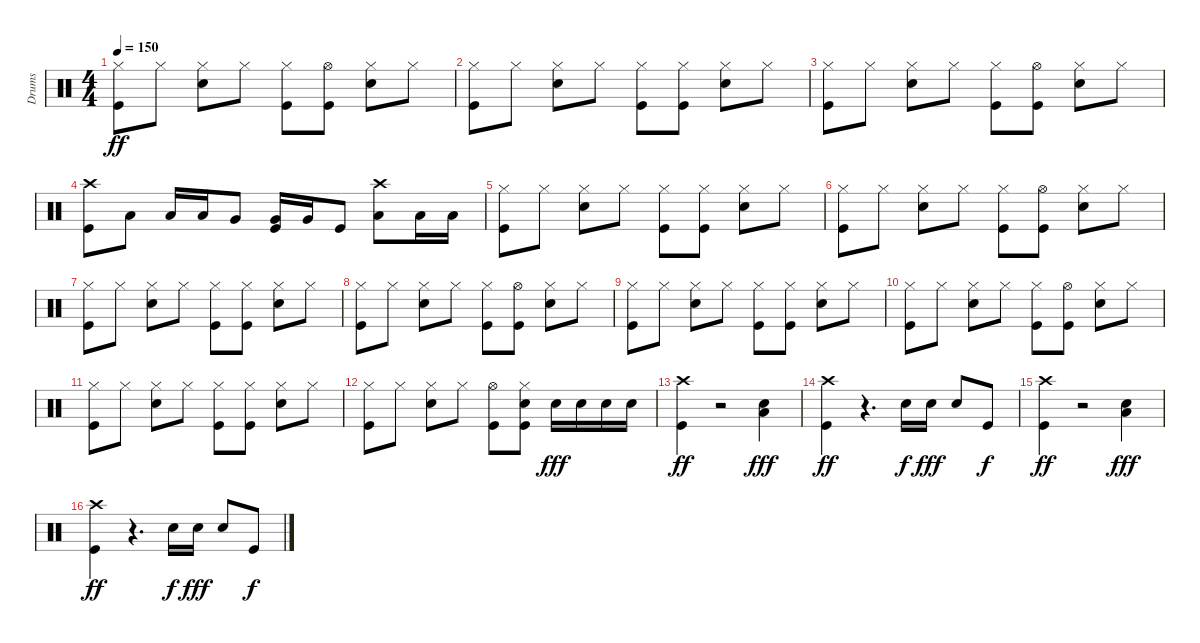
\track ("Drums" "Drums") {instrument percussion}
\staff {score}
\articulation defaults
\ts (4 4)
\tempo 150
\clef neutral
\ks c
("Hi-Hat (closed)" "Kick (hit)").8{dy ff} "Hi-Hat (closed)".8 ("Hi-Hat (closed)" "Snare (hit) 2").8 "Hi-Hat (closed)".8 ("Hi-Hat (closed)" "Kick (hit)").8 ("Hi-Hat (open)" "Kick (hit)").8 ("Hi-Hat (closed)" "Snare (hit) 2").8 "Hi-Hat (closed)".8 |
("Hi-Hat (closed)" "Kick (hit)").8 "Hi-Hat (closed)".8 ("Hi-Hat (closed)" "Snare (hit) 2").8 "Hi-Hat (closed)".8 ("Hi-Hat (closed)" "Kick (hit)").8 ("Hi-Hat (closed)" "Kick (hit)").8 ("Hi-Hat (closed)" "Snare (hit) 2").8 "Hi-Hat (closed)".8 |
("Hi-Hat (closed)" "Kick (hit)").8 "Hi-Hat (closed)".8 ("Hi-Hat (closed)" "Snare (hit) 2").8 "Hi-Hat (closed)".8 ("Hi-Hat (closed)" "Kick (hit)").8 ("Hi-Hat (open)" "Kick (hit)").8 ("Hi-Hat (closed)" "Snare (hit) 2").8 "Hi-Hat (closed)".8 |
("Crash high (hit)" "Kick (hit)").8 "Low Tom (hit)".8 "Low Tom (hit)".16 "Low Tom (hit)".16 "Very Low Tom (hit)".8 ("Very Low Tom (hit)" "Kick (hit)").16 "Very Low Tom (hit)".16 "Kick (hit)".8 ("Crash high (hit)" "Low Floor Tom (hit)").8 "Low Floor Tom (hit)".16 "Low Floor Tom (hit)".16 |
("Hi-Hat (closed)" "Kick (hit)").8 "Hi-Hat (closed)".8 ("Hi-Hat (closed)" "Snare (hit) 2").8 "Hi-Hat (closed)".8 ("Hi-Hat (closed)" "Kick (hit)").8 ("Hi-Hat (closed)" "Kick (hit)").8 ("Hi-Hat (closed)" "Snare (hit) 2").8 "Hi-Hat (closed)".8 |
("Hi-Hat (closed)" "Kick (hit)").8 "Hi-Hat (closed)".8 ("Hi-Hat (closed)" "Snare (hit) 2").8 "Hi-Hat (closed)".8 ("Hi-Hat (closed)" "Kick (hit)").8 ("Hi-Hat (open)" "Kick (hit)").8 ("Hi-Hat (closed)" "Snare (hit) 2").8 "Hi-Hat (closed)".8 |
("Hi-Hat (closed)" "Kick (hit)").8 "Hi-Hat (closed)".8 ("Hi-Hat (closed)" "Snare (hit) 2").8 "Hi-Hat (closed)".8 ("Hi-Hat (closed)" "Kick (hit)").8 ("Hi-Hat (closed)" "Kick (hit)").8 ("Hi-Hat (closed)" "Snare (hit) 2").8 "Hi-Hat (closed)".8 |
("Hi-Hat (closed)" "Kick (hit)").8 "Hi-Hat (closed)".8 ("Hi-Hat (closed)" "Snare (hit) 2").8 "Hi-Hat (closed)".8 ("Hi-Hat (closed)" "Kick (hit)").8 ("Hi-Hat (open)" "Kick (hit)").8 ("Hi-Hat (closed)" "Snare (hit) 2").8 "Hi-Hat (closed)".8 |
("Hi-Hat (closed)" "Kick (hit)").8 "Hi-Hat (closed)".8 ("Hi-Hat (closed)" "Snare (hit) 2").8 "Hi-Hat (closed)".8 ("Hi-Hat (closed)" "Kick (hit)").8 ("Hi-Hat (closed)" "Kick (hit)").8 ("Hi-Hat (closed)" "Snare (hit) 2").8 "Hi-Hat (closed)".8 |
("Hi-Hat (closed)" "Kick (hit)").8 "Hi-Hat (closed)".8 ("Hi-Hat (closed)" "Snare (hit) 2").8 "Hi-Hat (closed)".8 ("Hi-Hat (closed)" "Kick (hit)").8 ("Hi-Hat (open)" "Kick (hit)").8 ("Hi-Hat (closed)" "Snare (hit) 2").8 "Hi-Hat (closed)".8 |
("Hi-Hat (closed)" "Kick (hit)").8 "Hi-Hat (closed)".8 ("Hi-Hat (closed)" "Snare (hit) 2").8 "Hi-Hat (closed)".8 ("Hi-Hat (closed)" "Kick (hit)").8 ("Hi-Hat (closed)" "Kick (hit)").8 ("Hi-Hat (closed)" "Snare (hit) 2").8 "Hi-Hat (closed)".8 |
("Hi-Hat (closed)" "Kick (hit)").8 "Hi-Hat (closed)".8 ("Hi-Hat (closed)" "Snare (hit) 2").8 "Hi-Hat (closed)".8 ("Hi-Hat (open)" "Kick (hit)").8 ("Hi-Hat (closed)" "Snare (hit) 2" "Kick (hit)").8 "Snare (hit) 2".16{dy fff} "Snare (hit) 2".16 "Snare (hit) 2".16 "Snare (hit) 2".16 |
("Crash high (hit)" "Kick (hit)").4{dy ff} r.2 ("Low Floor Tom (hit)" "Snare (hit) 2").4{dy fff} |
("Crash high (hit)" "Kick (hit)").4{dy ff} r.4{d} "Snare (hit) 2".16{dy f} "Snare (hit) 2".16{dy fff} "Snare (hit) 2".8 "Kick (hit)".8{dy f} |
("Crash high (hit)" "Kick (hit)").4{dy ff} r.2 ("Low Floor Tom (hit)" "Snare (hit) 2").4{dy fff} |
("Crash high (hit)" "Kick (hit)").4{dy ff} r.4{d} "Snare (hit) 2".16{dy f} "Snare (hit) 2".16{dy fff} "Snare (hit) 2".8 "Kick (hit)".8{dy f}
